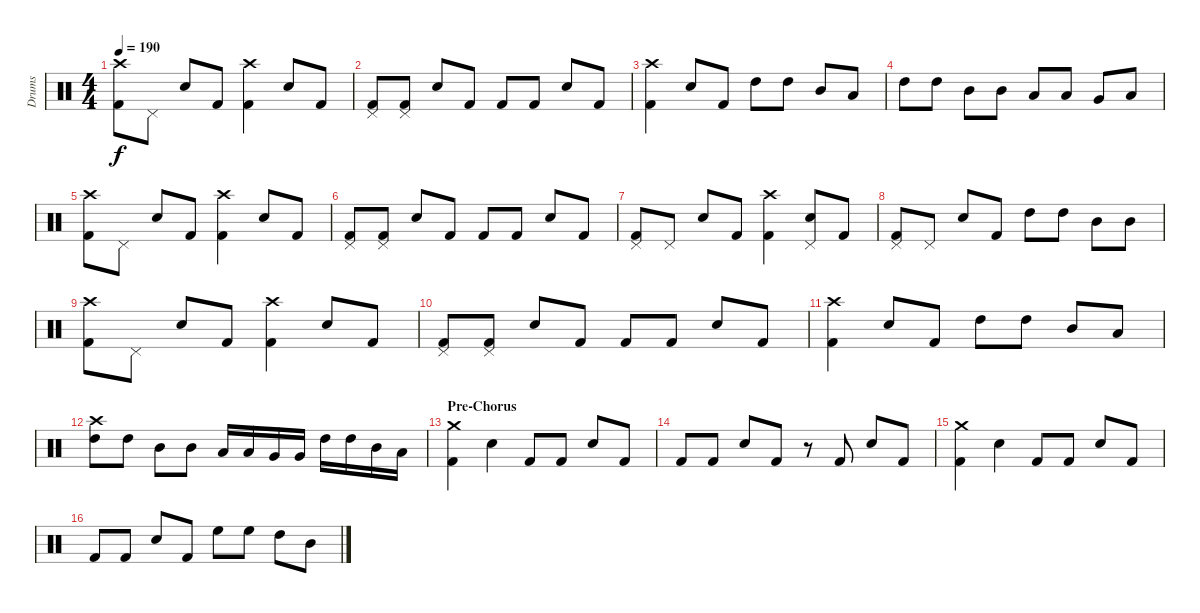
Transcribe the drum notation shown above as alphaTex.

\track ("Drums" "Drums") {instrument percussion}
\staff {score}
\articulation defaults
\ts (4 4)
\tempo 190
\clef neutral
\ks c
("Crash high (hit)" "Kick (hit) 2").8{dy f} "Pedal Hi-Hat (hit)".8 "Electric Snare (hit)".8 "Kick (hit) 2".8 ("Crash high (hit)" "Kick (hit) 2").4 "Electric Snare (hit)".8 "Kick (hit) 2".8 |
("Pedal Hi-Hat (hit)" "Kick (hit) 2").8 ("Pedal Hi-Hat (hit)" "Kick (hit) 2").8 "Electric Snare (hit)".8 "Kick (hit) 2".8 "Kick (hit) 2".8 "Kick (hit) 2".8 "Electric Snare (hit)".8 "Kick (hit) 2".8 |
("Crash high (hit)" "Kick (hit) 2").4 "Electric Snare (hit)".8 "Kick (hit) 2".8 "High Tom (hit)".8 "High Tom (hit)".8 "Mid Tom (hit)".8 "Low Tom (hit)".8 |
"High Tom (hit)".8 "High Tom (hit)".8 "Mid Tom (hit)".8 "Mid Tom (hit)".8 "Low Tom (hit)".8 "Low Tom (hit)".8 "Very Low Tom (hit)".8 "Low Floor Tom (hit)".8 |
("Crash high (hit)" "Kick (hit) 2").8 "Pedal Hi-Hat (hit)".8 "Electric Snare (hit)".8 "Kick (hit) 2".8 ("Crash high (hit)" "Kick (hit) 2").4 "Electric Snare (hit)".8 "Kick (hit) 2".8 |
("Pedal Hi-Hat (hit)" "Kick (hit) 2").8 ("Pedal Hi-Hat (hit)" "Kick (hit) 2").8 "Electric Snare (hit)".8 "Kick (hit) 2".8 "Kick (hit) 2".8 "Kick (hit) 2".8 "Electric Snare (hit)".8 "Kick (hit) 2".8 |
("Pedal Hi-Hat (hit)" "Kick (hit) 2").8 "Pedal Hi-Hat (hit)".8 "Electric Snare (hit)".8 "Kick (hit) 2".8 ("Crash high (hit)" "Kick (hit) 2").4 ("Pedal Hi-Hat (hit)" "Electric Snare (hit)").8 "Kick (hit) 2".8 |
("Pedal Hi-Hat (hit)" "Kick (hit) 2").8 "Pedal Hi-Hat (hit)".8 "Electric Snare (hit)".8 "Kick (hit) 2".8 "High Tom (hit)".8 "High Tom (hit)".8 "Mid Tom (hit)".8 "Mid Tom (hit)".8 |
("Crash high (hit)" "Kick (hit) 2").8 "Pedal Hi-Hat (hit)".8 "Electric Snare (hit)".8 "Kick (hit) 2".8 ("Crash high (hit)" "Kick (hit) 2").4 "Electric Snare (hit)".8 "Kick (hit) 2".8 |
("Pedal Hi-Hat (hit)" "Kick (hit) 2").8 ("Pedal Hi-Hat (hit)" "Kick (hit) 2").8 "Electric Snare (hit)".8 "Kick (hit) 2".8 "Kick (hit) 2".8 "Kick (hit) 2".8 "Electric Snare (hit)".8 "Kick (hit) 2".8 |
("Crash high (hit)" "Kick (hit) 2").4 "Electric Snare (hit)".8 "Kick (hit) 2".8 "High Tom (hit)".8 "High Tom (hit)".8 "Mid Tom (hit)".8 "Low Tom (hit)".8 |
("High Tom (hit)" "Crash high (hit)").8 "High Tom (hit)".8 "Mid Tom (hit)".8 "Mid Tom (hit)".8 "Low Tom (hit)".16 "Low Tom (hit)".16 "Very Low Tom (hit)".16 "Very Low Tom (hit)".16 "High Tom (hit)".16 "High Tom (hit)".16 "Mid Tom (hit)".16 "Low Tom (hit)".16 |
\section ("" "Pre-Chorus")
("Crash medium (hit)" "Kick (hit) 2").4 "Electric Snare (hit)".4 "Kick (hit) 2".8 "Kick (hit) 2".8 "Electric Snare (hit)".8 "Kick (hit) 2".8 |
"Kick (hit) 2".8 "Kick (hit) 2".8 "Electric Snare (hit)".8 "Kick (hit) 2".8 r.8 "Kick (hit) 2".8 "Electric Snare (hit)".8 "Kick (hit) 2".8 |
("Crash medium (hit)" "Kick (hit) 2").4 "Electric Snare (hit)".4 "Kick (hit) 2".8 "Kick (hit) 2".8 "Electric Snare (hit)".8 "Kick (hit) 2".8 |
"Kick (hit) 2".8 "Kick (hit) 2".8 "Electric Snare (hit)".8 "Kick (hit) 2".8 "High Floor Tom (hit)".8 "High Floor Tom (hit)".8 "High Tom (hit)".8 "Mid Tom (hit)".8
